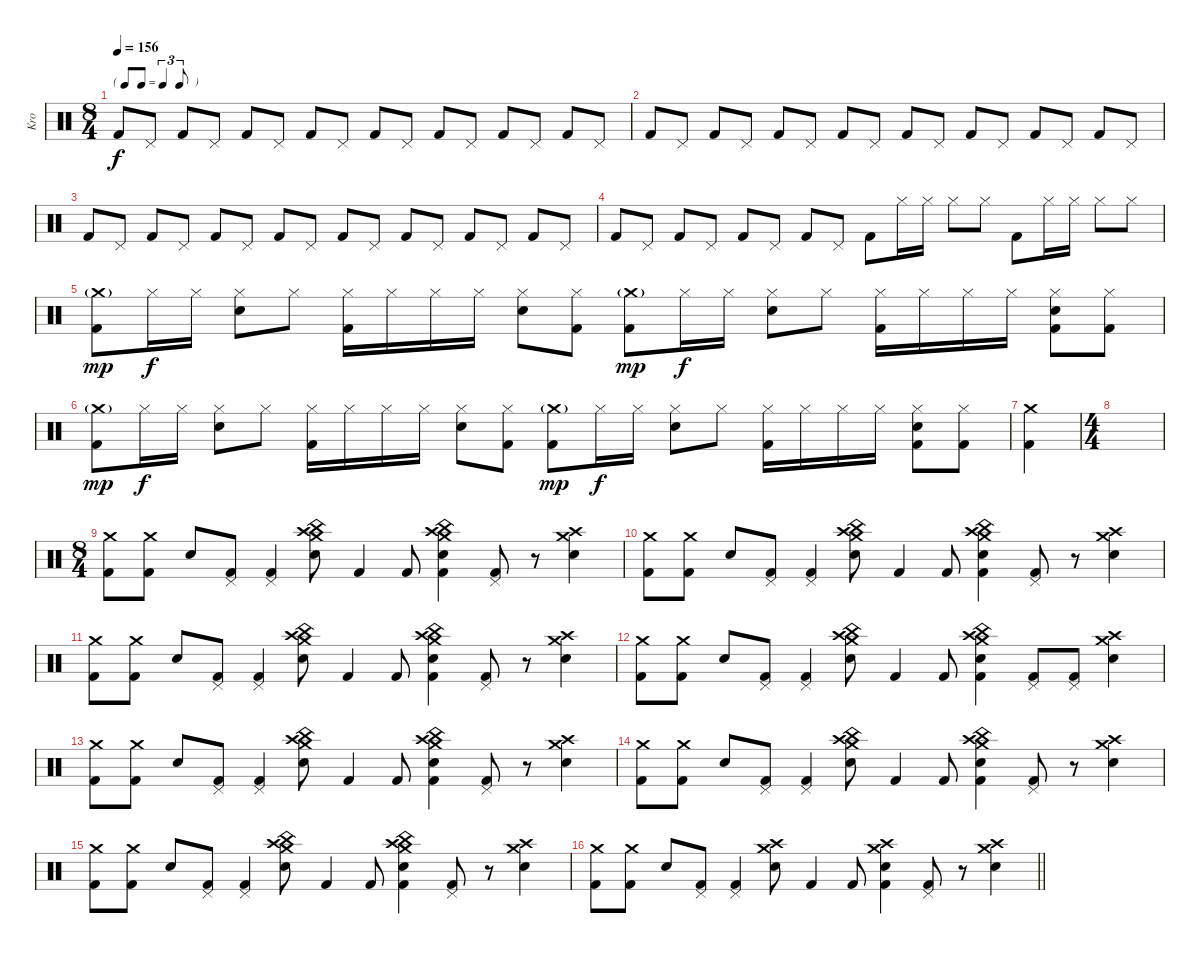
\track ("Kro" "Kro") {instrument percussion}
\staff {score}
\articulation defaults
\ts (8 4)
\tf triplet8th
\tempo 156
\clef neutral
\ks c "Kick (hit) 2".8{dy f} "Pedal Hi-Hat (hit)".8 "Kick (hit) 2".8 "Pedal Hi-Hat (hit)".8 "Kick (hit) 2".8 "Pedal Hi-Hat (hit)".8 "Kick (hit) 2".8 "Pedal Hi-Hat (hit)".8 "Kick (hit) 2".8 "Pedal Hi-Hat (hit)".8 "Kick (hit) 2".8 "Pedal Hi-Hat (hit)".8 "Kick (hit) 2".8 "Pedal Hi-Hat (hit)".8 "Kick (hit) 2".8 "Pedal Hi-Hat (hit)".8
|
"Kick (hit) 2".8 "Pedal Hi-Hat (hit)".8 "Kick (hit) 2".8 "Pedal Hi-Hat (hit)".8 "Kick (hit) 2".8 "Pedal Hi-Hat (hit)".8 "Kick (hit) 2".8 "Pedal Hi-Hat (hit)".8 "Kick (hit) 2".8 "Pedal Hi-Hat (hit)".8 "Kick (hit) 2".8 "Pedal Hi-Hat (hit)".8 "Kick (hit) 2".8 "Pedal Hi-Hat (hit)".8 "Kick (hit) 2".8 "Pedal Hi-Hat (hit)".8 |
"Kick (hit) 2".8 "Pedal Hi-Hat (hit)".8 "Kick (hit) 2".8 "Pedal Hi-Hat (hit)".8 "Kick (hit) 2".8 "Pedal Hi-Hat (hit)".8 "Kick (hit) 2".8 "Pedal Hi-Hat (hit)".8 "Kick (hit) 2".8 "Pedal Hi-Hat (hit)".8 "Kick (hit) 2".8 "Pedal Hi-Hat (hit)".8 "Kick (hit) 2".8 "Pedal Hi-Hat (hit)".8 "Kick (hit) 2".8 "Pedal Hi-Hat (hit)".8 |
"Kick (hit) 2".8 "Pedal Hi-Hat (hit)".8 "Kick (hit) 2".8 "Pedal Hi-Hat (hit)".8 "Kick (hit) 2".8 "Pedal Hi-Hat (hit)".8 "Kick (hit) 2".8 "Pedal Hi-Hat (hit)".8 "Kick (hit) 2".8 "Hi-Hat (closed)".16 "Hi-Hat (closed)".16 "Hi-Hat (closed)".8 "Hi-Hat (closed)".8 "Kick (hit) 2".8 "Hi-Hat (closed)".16 "Hi-Hat (closed)".16 "Hi-Hat (closed)".8 "Hi-Hat (closed)".8 |
("Crash medium (hit)"{g} "Kick (hit) 2").8{dy mp} "Hi-Hat (closed)".16{dy f} "Hi-Hat (closed)".16 ("Hi-Hat (closed)" "Electric Snare (hit)").8 "Hi-Hat (closed)".8 ("Hi-Hat (closed)" "Kick (hit) 2").16 "Hi-Hat (closed)".16 "Hi-Hat (closed)".16 "Hi-Hat (closed)".16 ("Hi-Hat (closed)" "Electric Snare (hit)").8 ("Hi-Hat (closed)" "Kick (hit) 2").8 ("Crash medium (hit)"{g} "Kick (hit) 2").8{dy mp} "Hi-Hat (closed)".16{dy f} "Hi-Hat (closed)".16 ("Hi-Hat (closed)" "Electric Snare (hit)").8 "Hi-Hat (closed)".8 ("Hi-Hat (closed)" "Kick (hit) 2").16 "Hi-Hat (closed)".16 "Hi-Hat (closed)".16 "Hi-Hat (closed)".16 ("Hi-Hat (closed)" "Kick (hit) 2" "Electric Snare (hit)").8 ("Hi-Hat (closed)" "Kick (hit) 2").8 |
("Crash medium (hit)"{g} "Kick (hit) 2").8{dy mp} "Hi-Hat (closed)".16{dy f} "Hi-Hat (closed)".16 ("Hi-Hat (closed)" "Electric Snare (hit)").8 "Hi-Hat (closed)".8 ("Hi-Hat (closed)" "Kick (hit) 2").16 "Hi-Hat (closed)".16 "Hi-Hat (closed)".16 "Hi-Hat (closed)".16 ("Hi-Hat (closed)" "Electric Snare (hit)").8 ("Hi-Hat (closed)" "Kick (hit) 2").8 ("Crash medium (hit)"{g} "Kick (hit) 2").8{dy mp} "Hi-Hat (closed)".16{dy f} "Hi-Hat (closed)".16 ("Hi-Hat (closed)" "Electric Snare (hit)").8 "Hi-Hat (closed)".8 ("Hi-Hat (closed)" "Kick (hit) 2").16 "Hi-Hat (closed)".16 "Hi-Hat (closed)".16 "Hi-Hat (closed)".16 ("Hi-Hat (closed)" "Kick (hit) 2" "Electric Snare (hit)").8 ("Hi-Hat (closed)" "Kick (hit) 2").8 |
("Crash medium (hit)" "Kick (hit) 2").4 |
\ts (4 4)
|
\ts (8 4)
("Crash medium (hit)" "Kick (hit) 2").8 ("Crash medium (hit)" "Kick (hit) 2").8 "Electric Snare (hit)".8 ("Pedal Hi-Hat (hit)" "Kick (hit) 2").8 ("Pedal Hi-Hat (hit)" "Kick (hit) 2").4 ("Crash medium (hit)" "China (hit)" "Electric Snare (hit)" "Crash high (hit)").8 "Kick (hit) 2".4 "Kick (hit) 2".8 ("China (hit)" "Crash medium (hit)" "Electric Snare (hit)" "Kick (hit) 2" "Crash high (hit)").4 ("Pedal Hi-Hat (hit)" "Kick (hit) 2").8 r.8 ("Crash medium (hit)" "Crash high (hit)" "Electric Snare (hit)").4 |
("Crash medium (hit)" "Kick (hit) 2").8 ("Crash medium (hit)" "Kick (hit) 2").8 "Electric Snare (hit)".8 ("Pedal Hi-Hat (hit)" "Kick (hit) 2").8 ("Pedal Hi-Hat (hit)" "Kick (hit) 2").4 ("Crash medium (hit)" "China (hit)" "Electric Snare (hit)" "Crash high (hit)").8 "Kick (hit) 2".4 "Kick (hit) 2".8 ("China (hit)" "Crash medium (hit)" "Electric Snare (hit)" "Kick (hit) 2" "Crash high (hit)").4 ("Pedal Hi-Hat (hit)" "Kick (hit) 2").8 r.8 ("Crash medium (hit)" "Crash high (hit)" "Electric Snare (hit)").4 |
("Crash medium (hit)" "Kick (hit) 2").8 ("Crash medium (hit)" "Kick (hit) 2").8 "Electric Snare (hit)".8 ("Pedal Hi-Hat (hit)" "Kick (hit) 2").8 ("Pedal Hi-Hat (hit)" "Kick (hit) 2").4 ("Crash medium (hit)" "China (hit)" "Electric Snare (hit)" "Crash high (hit)").8 "Kick (hit) 2".4 "Kick (hit) 2".8 ("China (hit)" "Crash medium (hit)" "Electric Snare (hit)" "Kick (hit) 2" "Crash high (hit)").4 ("Pedal Hi-Hat (hit)" "Kick (hit) 2").8 r.8 ("Crash medium (hit)" "Crash high (hit)" "Electric Snare (hit)").4 |
("Crash medium (hit)" "Kick (hit) 2").8 ("Crash medium (hit)" "Kick (hit) 2").8 "Electric Snare (hit)".8 ("Pedal Hi-Hat (hit)" "Kick (hit) 2").8 ("Pedal Hi-Hat (hit)" "Kick (hit) 2").4 ("Crash medium (hit)" "China (hit)" "Electric Snare (hit)" "Crash high (hit)").8 "Kick (hit) 2".4 "Kick (hit) 2".8 ("China (hit)" "Crash medium (hit)" "Electric Snare (hit)" "Kick (hit) 2" "Crash high (hit)").4 ("Pedal Hi-Hat (hit)" "Kick (hit) 2").8 ("Pedal Hi-Hat (hit)" "Kick (hit) 2").8 ("Crash medium (hit)" "Crash high (hit)" "Electric Snare (hit)").4 |
("Crash medium (hit)" "Kick (hit) 2").8 ("Crash medium (hit)" "Kick (hit) 2").8 "Electric Snare (hit)".8 ("Pedal Hi-Hat (hit)" "Kick (hit) 2").8 ("Pedal Hi-Hat (hit)" "Kick (hit) 2").4 ("Crash medium (hit)" "China (hit)" "Electric Snare (hit)" "Crash high (hit)").8 "Kick (hit) 2".4 "Kick (hit) 2".8 ("China (hit)" "Crash medium (hit)" "Electric Snare (hit)" "Kick (hit) 2" "Crash high (hit)").4 ("Pedal Hi-Hat (hit)" "Kick (hit) 2").8 r.8 ("Crash medium (hit)" "Crash high (hit)" "Electric Snare (hit)").4 |
("Crash medium (hit)" "Kick (hit) 2").8 ("Crash medium (hit)" "Kick (hit) 2").8 "Electric Snare (hit)".8 ("Pedal Hi-Hat (hit)" "Kick (hit) 2").8 ("Pedal Hi-Hat (hit)" "Kick (hit) 2").4 ("Crash medium (hit)" "China (hit)" "Electric Snare (hit)" "Crash high (hit)").8 "Kick (hit) 2".4 "Kick (hit) 2".8 ("China (hit)" "Crash medium (hit)" "Electric Snare (hit)" "Kick (hit) 2" "Crash high (hit)").4 ("Pedal Hi-Hat (hit)" "Kick (hit) 2").8 r.8 ("Crash medium (hit)" "Crash high (hit)" "Electric Snare (hit)").4 |
("Crash medium (hit)" "Kick (hit) 2").8 ("Crash medium (hit)" "Kick (hit) 2").8 "Electric Snare (hit)".8 ("Pedal Hi-Hat (hit)" "Kick (hit) 2").8 ("Pedal Hi-Hat (hit)" "Kick (hit) 2").4 ("Crash medium (hit)" "China (hit)" "Electric Snare (hit)" "Crash high (hit)").8 "Kick (hit) 2".4 "Kick (hit) 2".8 ("China (hit)" "Crash medium (hit)" "Electric Snare (hit)" "Kick (hit) 2" "Crash high (hit)").4 ("Pedal Hi-Hat (hit)" "Kick (hit) 2").8 r.8 ("Crash medium (hit)" "Crash high (hit)" "Electric Snare (hit)").4 |
\barLineRight lightlight
("Crash medium (hit)" "Kick (hit) 2").8 ("Crash medium (hit)" "Kick (hit) 2").8 "Electric Snare (hit)".8 ("Pedal Hi-Hat (hit)" "Kick (hit) 2").8 ("Pedal Hi-Hat (hit)" "Kick (hit) 2").4 ("Crash medium (hit)" "Electric Snare (hit)" "Crash high (hit)").8 "Kick (hit) 2".4 "Kick (hit) 2".8 ("Crash medium (hit)" "Electric Snare (hit)" "Kick (hit) 2" "Crash high (hit)").4 ("Pedal Hi-Hat (hit)" "Kick (hit) 2").8 r.8 ("Crash medium (hit)" "Crash high (hit)" "Electric Snare (hit)").4
